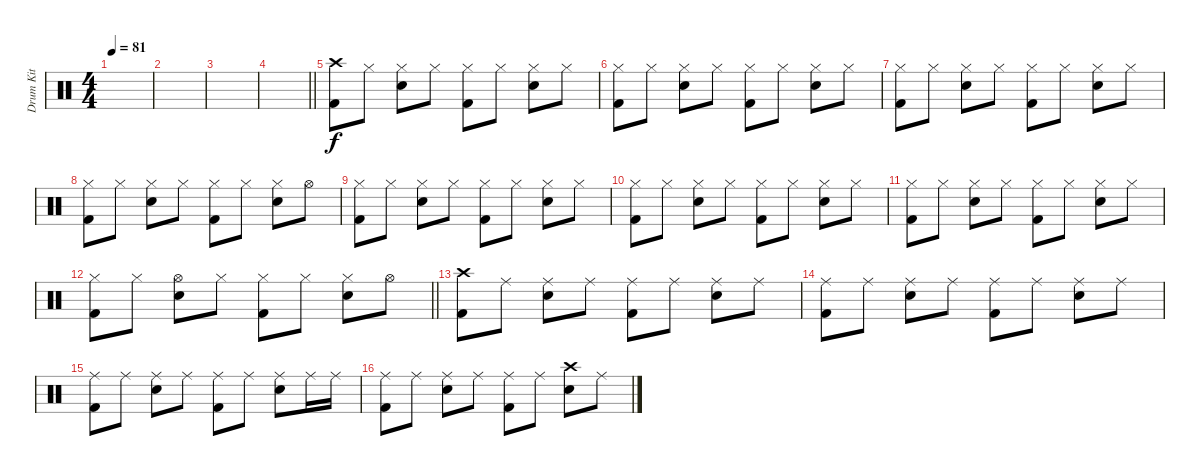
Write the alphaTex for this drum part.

\track ("Drum Kit" "Drum Kit") {instrument percussion}
\staff {score}
\articulation defaults
\ts (4 4)
\tempo 81
\clef neutral
\ks c
|
|
|
\barLineRight lightlight
|
("Crash high (hit)" "Kick (hit) 2").8 "Hi-Hat (closed)".8 ("Hi-Hat (closed)" "Snare (hit) 2").8 "Hi-Hat (closed)".8 ("Hi-Hat (closed)" "Kick (hit) 2").8 "Hi-Hat (closed)".8 ("Hi-Hat (closed)" "Snare (hit) 2").8 "Hi-Hat (closed)".8 |
("Hi-Hat (closed)" "Kick (hit) 2").8 "Hi-Hat (closed)".8 ("Hi-Hat (closed)" "Snare (hit) 2").8 "Hi-Hat (closed)".8 ("Hi-Hat (closed)" "Kick (hit) 2").8 "Hi-Hat (closed)".8 ("Hi-Hat (closed)" "Snare (hit) 2").8 "Hi-Hat (closed)".8 |
("Hi-Hat (closed)" "Kick (hit) 2").8 "Hi-Hat (closed)".8 ("Hi-Hat (closed)" "Snare (hit) 2").8 "Hi-Hat (closed)".8 ("Hi-Hat (closed)" "Kick (hit) 2").8 "Hi-Hat (closed)".8 ("Hi-Hat (closed)" "Snare (hit) 2").8 "Hi-Hat (closed)".8 |
("Hi-Hat (closed)" "Kick (hit) 2").8 "Hi-Hat (closed)".8 ("Hi-Hat (closed)" "Snare (hit) 2").8 "Hi-Hat (closed)".8 ("Hi-Hat (closed)" "Kick (hit) 2").8 "Hi-Hat (closed)".8 ("Hi-Hat (closed)" "Snare (hit) 2").8 "Hi-Hat (open)".8 |
("Hi-Hat (closed)" "Kick (hit) 2").8 "Hi-Hat (closed)".8 ("Hi-Hat (closed)" "Snare (hit) 2").8 "Hi-Hat (closed)".8 ("Hi-Hat (closed)" "Kick (hit) 2").8 "Hi-Hat (closed)".8 ("Hi-Hat (closed)" "Snare (hit) 2").8 "Hi-Hat (closed)".8 |
("Hi-Hat (closed)" "Kick (hit) 2").8 "Hi-Hat (closed)".8 ("Hi-Hat (closed)" "Snare (hit) 2").8 "Hi-Hat (closed)".8 ("Hi-Hat (closed)" "Kick (hit) 2").8 "Hi-Hat (closed)".8 ("Hi-Hat (closed)" "Snare (hit) 2").8 "Hi-Hat (closed)".8 |
("Hi-Hat (closed)" "Kick (hit) 2").8 "Hi-Hat (closed)".8 ("Hi-Hat (closed)" "Snare (hit) 2").8 "Hi-Hat (closed)".8 ("Hi-Hat (closed)" "Kick (hit) 2").8 "Hi-Hat (closed)".8 ("Hi-Hat (closed)" "Snare (hit) 2").8 "Hi-Hat (closed)".8 |
\barLineRight lightlight
("Hi-Hat (closed)" "Kick (hit) 2").8 "Hi-Hat (closed)".8 ("Hi-Hat (open)" "Snare (hit) 2").8 "Hi-Hat (closed)".8 ("Hi-Hat (closed)" "Kick (hit) 2").8 "Hi-Hat (closed)".8 ("Hi-Hat (closed)" "Snare (hit) 2").8 "Hi-Hat (open)".8 |
("Crash high (hit)" "Kick (hit) 2").8 "Ride (middle)".8 ("Ride (middle)" "Snare (hit) 2").8 "Ride (middle)".8 ("Ride (middle)" "Kick (hit) 2").8 "Ride (middle)".8 ("Ride (middle)" "Snare (hit) 2").8 "Ride (middle)".8 |
("Ride (middle)" "Kick (hit) 2").8 "Ride (middle)".8 ("Ride (middle)" "Snare (hit) 2").8 "Ride (middle)".8 ("Ride (middle)" "Kick (hit) 2").8 "Ride (middle)".8 ("Ride (middle)" "Snare (hit) 2").8 "Ride (middle)".8 |
("Ride (middle)" "Kick (hit) 2").8 "Ride (middle)".8 ("Ride (middle)" "Snare (hit) 2").8 "Ride (middle)".8 ("Ride (middle)" "Kick (hit) 2").8 "Ride (middle)".8 ("Ride (middle)" "Snare (hit) 2").8 "Ride (middle)".16 "Ride (middle)".16 |
("Ride (middle)" "Kick (hit) 2").8 "Ride (middle)".8 ("Ride (middle)" "Snare (hit) 2").8 "Ride (middle)".8 ("Ride (middle)" "Kick (hit) 2").8 "Ride (middle)".8 ("Crash high (hit)" "Snare (hit) 2").8 "Ride (middle)".8
